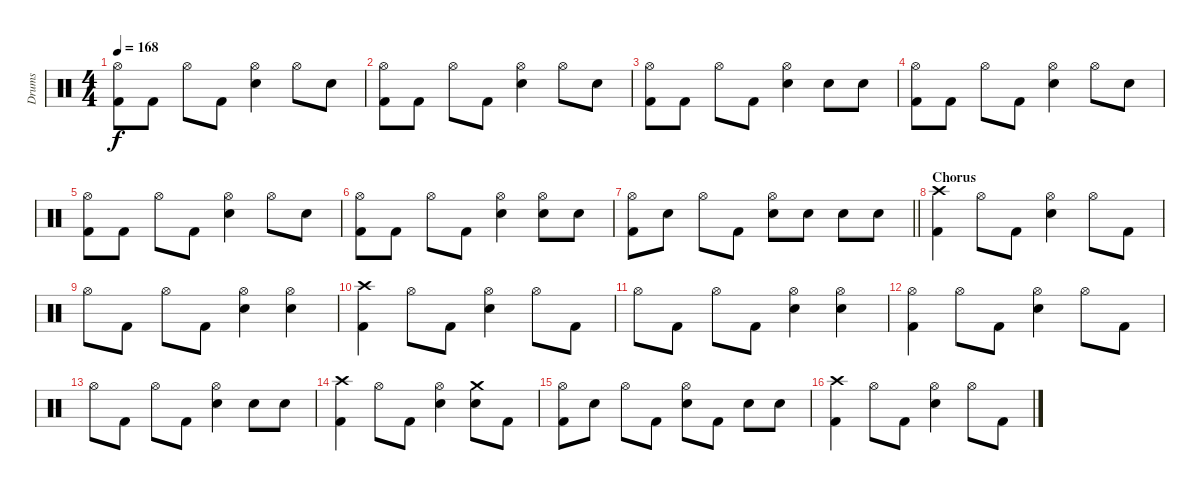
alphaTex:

\track ("Drums" "Drums") {instrument percussion}
\staff {score}
\articulation defaults
\ts (4 4)
\tempo 168
\clef neutral
\ks c
("Hi-Hat (open)" "Kick (hit) 2").8{dy f} "Kick (hit) 2".8 "Hi-Hat (open)".8 "Kick (hit) 2".8 ("Hi-Hat (open)" "Snare (hit) 2").4 "Hi-Hat (open)".8 "Snare (hit) 2".8 |
("Hi-Hat (open)" "Kick (hit) 2").8 "Kick (hit) 2".8 "Hi-Hat (open)".8 "Kick (hit) 2".8 ("Hi-Hat (open)" "Snare (hit) 2").4 "Hi-Hat (open)".8 "Snare (hit) 2".8 |
("Hi-Hat (open)" "Kick (hit) 2").8 "Kick (hit) 2".8 "Hi-Hat (open)".8 "Kick (hit) 2".8 ("Hi-Hat (open)" "Snare (hit) 2").4 "Snare (hit) 2".8 "Snare (hit) 2".8 |
("Hi-Hat (open)" "Kick (hit) 2").8 "Kick (hit) 2".8 "Hi-Hat (open)".8 "Kick (hit) 2".8 ("Hi-Hat (open)" "Snare (hit) 2").4 "Hi-Hat (open)".8 "Snare (hit) 2".8 |
("Hi-Hat (open)" "Kick (hit) 2").8 "Kick (hit) 2".8 "Hi-Hat (open)".8 "Kick (hit) 2".8 ("Hi-Hat (open)" "Snare (hit) 2").4 "Hi-Hat (open)".8 "Snare (hit) 2".8 |
("Hi-Hat (open)" "Kick (hit) 2").8 "Kick (hit) 2".8 "Hi-Hat (open)".8 "Kick (hit) 2".8 ("Hi-Hat (open)" "Snare (hit) 2").4 ("Hi-Hat (open)" "Snare (hit) 2").8 "Snare (hit) 2".8 |
\barLineRight lightlight
("Hi-Hat (open)" "Kick (hit) 2").8 "Snare (hit) 2".8 "Hi-Hat (open)".8 "Kick (hit) 2".8 ("Hi-Hat (open)" "Snare (hit) 2").8 "Snare (hit) 2".8 "Snare (hit) 2".8 "Snare (hit) 2".8 |
\section ("" "Chorus")
("Crash high (hit)" "Kick (hit) 2").4 "Hi-Hat (open)".8 "Kick (hit) 2".8 ("Hi-Hat (open)" "Snare (hit) 2").4 "Hi-Hat (open)".8 "Kick (hit) 2".8 |
"Hi-Hat (open)".8 "Kick (hit) 2".8 "Hi-Hat (open)".8 "Kick (hit) 2".8 ("Hi-Hat (open)" "Snare (hit) 2").4 ("Hi-Hat (open)" "Snare (hit) 2").4 |
("Crash high (hit)" "Kick (hit) 2").4 "Hi-Hat (open)".8 "Kick (hit) 2".8 ("Hi-Hat (open)" "Snare (hit) 2").4 "Hi-Hat (open)".8 "Kick (hit) 2".8 |
"Hi-Hat (open)".8 "Kick (hit) 2".8 "Hi-Hat (open)".8 "Kick (hit) 2".8 ("Hi-Hat (open)" "Snare (hit) 2").4 ("Hi-Hat (open)" "Snare (hit) 2").4 |
("Hi-Hat (open)" "Kick (hit) 2").4 "Hi-Hat (open)".8 "Kick (hit) 2".8 ("Hi-Hat (open)" "Snare (hit) 2").4 "Hi-Hat (open)".8 "Kick (hit) 2".8 |
"Hi-Hat (open)".8 "Kick (hit) 2".8 "Hi-Hat (open)".8 "Kick (hit) 2".8 ("Hi-Hat (open)" "Snare (hit) 2").4 "Snare (hit) 2".8 "Snare (hit) 2".8 |
("Crash high (hit)" "Kick (hit) 2").4 "Hi-Hat (open)".8 "Kick (hit) 2".8 ("Hi-Hat (open)" "Snare (hit) 2").4 ("Crash medium (hit)" "Snare (hit) 2").8 "Kick (hit) 2".8 |
("Hi-Hat (open)" "Kick (hit) 2").8 "Snare (hit) 2".8 "Hi-Hat (open)".8 "Kick (hit) 2".8 ("Hi-Hat (open)" "Snare (hit) 2").8 "Kick (hit) 2".8 "Snare (hit) 2".8 "Snare (hit) 2".8 |
("Crash high (hit)" "Kick (hit) 2").4 "Hi-Hat (open)".8 "Kick (hit) 2".8 ("Hi-Hat (open)" "Snare (hit) 2").4 "Hi-Hat (open)".8 "Kick (hit) 2".8
